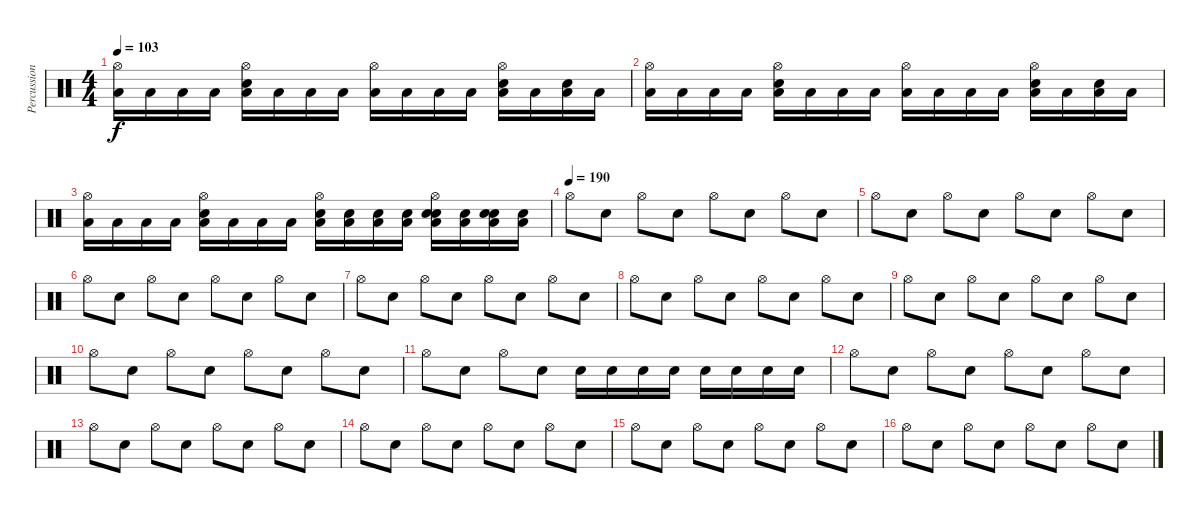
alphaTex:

\track ("Percussions" "Percussion") {instrument percussion}
\staff {score}
\articulation defaults
\ts (4 4)
\tempo 103
\clef neutral
\ks c
("Hi-Hat (open)" "Low Tom (hit)").16{dy f} "Low Tom (hit)".16 "Low Tom (hit)".16 "Low Tom (hit)".16 ("Hi-Hat (open)" "Snare (hit) 2" "Low Tom (hit)").16 "Low Tom (hit)".16 "Low Tom (hit)".16 "Low Tom (hit)".16 ("Hi-Hat (open)" "Low Tom (hit)").16 "Low Tom (hit)".16 "Low Tom (hit)".16 "Low Tom (hit)".16 ("Hi-Hat (open)" "Snare (hit) 2" "Low Tom (hit)").16 "Low Tom (hit)".16 ("Electric Snare (hit)" "Low Tom (hit)").16 "Low Tom (hit)".16 |
("Hi-Hat (open)" "Low Tom (hit)").16 "Low Tom (hit)".16 "Low Tom (hit)".16 "Low Tom (hit)".16 ("Hi-Hat (open)" "Snare (hit) 2" "Low Tom (hit)").16 "Low Tom (hit)".16 "Low Tom (hit)".16 "Low Tom (hit)".16 ("Hi-Hat (open)" "Low Tom (hit)").16 "Low Tom (hit)".16 "Low Tom (hit)".16 "Low Tom (hit)".16 ("Hi-Hat (open)" "Snare (hit) 2" "Low Tom (hit)").16 "Low Tom (hit)".16 ("Electric Snare (hit)" "Low Tom (hit)").16 "Low Tom (hit)".16 |
("Hi-Hat (open)" "Low Tom (hit)").16 "Low Tom (hit)".16 "Low Tom (hit)".16 "Low Tom (hit)".16 ("Hi-Hat (open)" "Snare (hit) 2" "Low Tom (hit)").16 "Low Tom (hit)".16 "Low Tom (hit)".16 "Low Tom (hit)".16 ("Hi-Hat (open)" "Low Tom (hit)" "Snare (hit) 2").16 ("Low Tom (hit)" "Snare (hit) 2").16 ("Low Tom (hit)" "Snare (hit) 2").16 ("Low Tom (hit)" "Snare (hit) 2").16 ("Hi-Hat (open)" "Snare (hit) 2" "Low Tom (hit)" "Snare (hit) 2").16 ("Low Tom (hit)" "Snare (hit) 2").16 ("Electric Snare (hit)" "Low Tom (hit)" "Snare (hit) 2").16 ("Low Tom (hit)" "Snare (hit) 2").16 |
\tempo (190)
"Hi-Hat (open)".8 "Snare (hit) 2".8 "Hi-Hat (open)".8 "Snare (hit) 2".8 "Hi-Hat (open)".8 "Snare (hit) 2".8 "Hi-Hat (open)".8 "Snare (hit) 2".8 |
"Hi-Hat (open)".8 "Snare (hit) 2".8 "Hi-Hat (open)".8 "Snare (hit) 2".8 "Hi-Hat (open)".8 "Snare (hit) 2".8 "Hi-Hat (open)".8 "Snare (hit) 2".8 |
"Hi-Hat (open)".8 "Snare (hit) 2".8 "Hi-Hat (open)".8 "Snare (hit) 2".8 "Hi-Hat (open)".8 "Snare (hit) 2".8 "Hi-Hat (open)".8 "Snare (hit) 2".8 |
"Hi-Hat (open)".8 "Snare (hit) 2".8 "Hi-Hat (open)".8 "Snare (hit) 2".8 "Hi-Hat (open)".8 "Snare (hit) 2".8 "Hi-Hat (open)".8 "Snare (hit) 2".8 |
"Hi-Hat (open)".8 "Snare (hit) 2".8 "Hi-Hat (open)".8 "Snare (hit) 2".8 "Hi-Hat (open)".8 "Snare (hit) 2".8 "Hi-Hat (open)".8 "Snare (hit) 2".8 |
"Hi-Hat (open)".8 "Snare (hit) 2".8 "Hi-Hat (open)".8 "Snare (hit) 2".8 "Hi-Hat (open)".8 "Snare (hit) 2".8 "Hi-Hat (open)".8 "Snare (hit) 2".8 |
"Hi-Hat (open)".8 "Snare (hit) 2".8 "Hi-Hat (open)".8 "Snare (hit) 2".8 "Hi-Hat (open)".8 "Snare (hit) 2".8 "Hi-Hat (open)".8 "Snare (hit) 2".8 |
"Hi-Hat (open)".8 "Snare (hit) 2".8 "Hi-Hat (open)".8 "Snare (hit) 2".8 "Electric Snare (hit)".16 "Electric Snare (hit)".16 "Electric Snare (hit)".16 "Electric Snare (hit)".16 "Electric Snare (hit)".16 "Electric Snare (hit)".16 "Electric Snare (hit)".16 "Electric Snare (hit)".16 |
"Hi-Hat (open)".8 "Snare (hit) 2".8 "Hi-Hat (open)".8 "Snare (hit) 2".8 "Hi-Hat (open)".8 "Snare (hit) 2".8 "Hi-Hat (open)".8 "Snare (hit) 2".8 |
"Hi-Hat (open)".8 "Snare (hit) 2".8 "Hi-Hat (open)".8 "Snare (hit) 2".8 "Hi-Hat (open)".8 "Snare (hit) 2".8 "Hi-Hat (open)".8 "Snare (hit) 2".8 |
"Hi-Hat (open)".8 "Snare (hit) 2".8 "Hi-Hat (open)".8 "Snare (hit) 2".8 "Hi-Hat (open)".8 "Snare (hit) 2".8 "Hi-Hat (open)".8 "Snare (hit) 2".8 |
"Hi-Hat (open)".8 "Snare (hit) 2".8 "Hi-Hat (open)".8 "Snare (hit) 2".8 "Hi-Hat (open)".8 "Snare (hit) 2".8 "Hi-Hat (open)".8 "Snare (hit) 2".8 |
"Hi-Hat (open)".8 "Snare (hit) 2".8 "Hi-Hat (open)".8 "Snare (hit) 2".8 "Hi-Hat (open)".8 "Snare (hit) 2".8 "Hi-Hat (open)".8 "Snare (hit) 2".8
